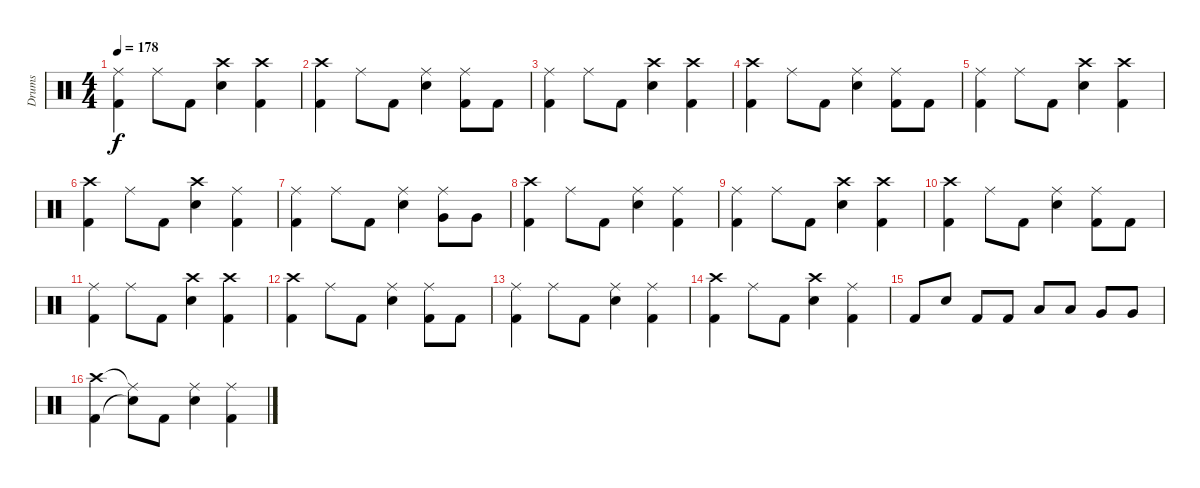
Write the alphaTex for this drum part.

\track ("Drums" "Drums") {mute instrument percussion}
\staff {score}
\articulation defaults
\ts (4 4)
\tempo 178
\clef neutral
\ks c
("Ride (middle)" "Kick (hit) 2").4{dy f} "Ride (middle)".8 "Kick (hit) 2".8 ("Crash high (hit)" "Electric Snare (hit)").4 ("Crash high (hit)" "Kick (hit) 2").4 |
("Crash high (hit)" "Kick (hit) 2").4 "Ride (middle)".8 "Kick (hit) 2".8 ("Ride (middle)" "Electric Snare (hit)").4 ("Ride (middle)" "Kick (hit) 2").8 "Kick (hit) 2".8 |
("Ride (middle)" "Kick (hit) 2").4 "Ride (middle)".8 "Kick (hit) 2".8 ("Crash high (hit)" "Electric Snare (hit)").4 ("Crash high (hit)" "Kick (hit) 2").4 |
("Crash high (hit)" "Kick (hit) 2").4 "Ride (middle)".8 "Kick (hit) 2".8 ("Ride (middle)" "Electric Snare (hit)").4 ("Ride (middle)" "Kick (hit) 2").8 "Kick (hit) 2".8 |
("Ride (middle)" "Kick (hit) 2").4 "Ride (middle)".8 "Kick (hit) 2".8 ("Crash high (hit)" "Electric Snare (hit)").4 ("Crash high (hit)" "Kick (hit) 2").4 |
("Crash high (hit)" "Kick (hit) 2").4 "Ride (middle)".8 "Kick (hit) 2".8 ("Crash high (hit)" "Electric Snare (hit)").4 ("Ride (middle)" "Kick (hit) 2").4 |
("Ride (middle)" "Kick (hit) 2").4 "Ride (middle)".8 "Kick (hit) 2".8 ("Ride (middle)" "Electric Snare (hit)").4 ("Ride (middle)" "Very Low Tom (hit)").8 "Very Low Tom (hit)".8 |
("Crash high (hit)" "Kick (hit) 2").4 "Ride (middle)".8 "Kick (hit) 2".8 ("Ride (middle)" "Electric Snare (hit)").4 ("Ride (middle)" "Kick (hit) 2").4 |
("Ride (middle)" "Kick (hit) 2").4 "Ride (middle)".8 "Kick (hit) 2".8 ("Crash high (hit)" "Electric Snare (hit)").4 ("Crash high (hit)" "Kick (hit) 2").4 |
("Crash high (hit)" "Kick (hit) 2").4 "Ride (middle)".8 "Kick (hit) 2".8 ("Ride (middle)" "Electric Snare (hit)").4 ("Ride (middle)" "Kick (hit) 2").8 "Kick (hit) 2".8 |
("Ride (middle)" "Kick (hit) 2").4 "Ride (middle)".8 "Kick (hit) 2".8 ("Crash high (hit)" "Electric Snare (hit)").4 ("Crash high (hit)" "Kick (hit) 2").4 |
("Crash high (hit)" "Kick (hit) 2").4 "Ride (middle)".8 "Kick (hit) 2".8 ("Ride (middle)" "Electric Snare (hit)").4 ("Ride (middle)" "Kick (hit) 2").8 "Kick (hit) 2".8 |
("Ride (middle)" "Kick (hit) 2").4 "Ride (middle)".8 "Kick (hit) 2".8 ("Ride (middle)" "Electric Snare (hit)").4 ("Ride (middle)" "Kick (hit) 2").4 |
("Crash high (hit)" "Kick (hit) 2").4 "Ride (middle)".8 "Kick (hit) 2".8 ("Crash high (hit)" "Electric Snare (hit)").4 ("Ride (middle)" "Kick (hit) 2").4 |
"Kick (hit) 2".8 "Electric Snare (hit)".8 "Kick (hit) 2".8 "Kick (hit) 2".8 "Low Tom (hit)".8 "Low Tom (hit)".8 "Very Low Tom (hit)".8 "Very Low Tom (hit)".8 |
("Crash high (hit)" "Kick (hit) 2").4 ("Ride (middle)"{t} "Snare (hit)"{t}).8 "Kick (hit) 2".8 ("Ride (middle)" "Electric Snare (hit)").4 ("Ride (middle)" "Kick (hit) 2").4
